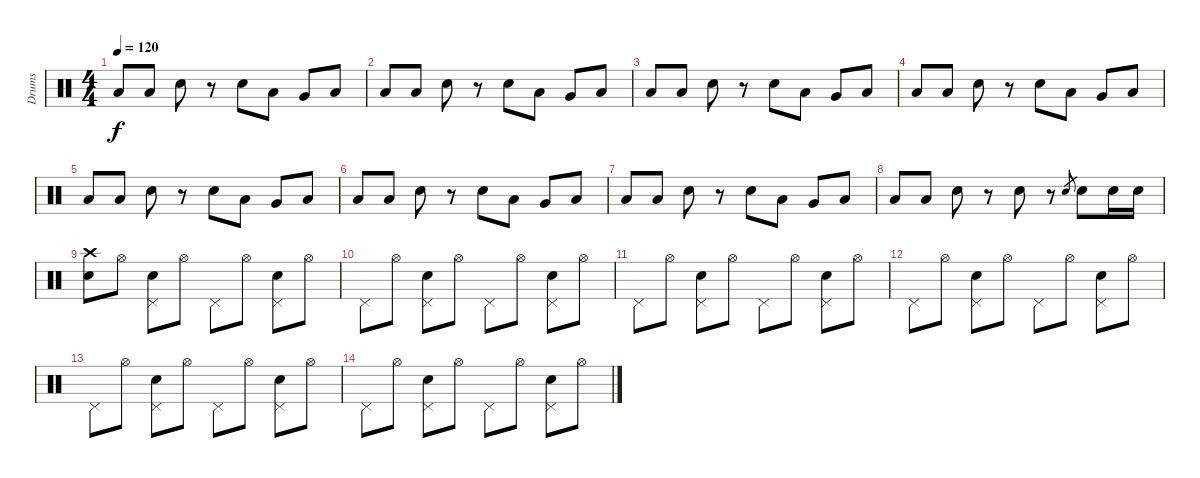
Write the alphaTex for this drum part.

\track ("Drums" "Drums") {instrument percussion}
\staff {score}
\articulation defaults
\ts (4 4)
\tempo 120
\clef neutral
\ks c "Low Tom (hit)".8{dy f} "Low Tom (hit)".8 "Electric Snare (hit)".8
r.8 "Electric Snare (hit)".8 "Low Tom (hit)".8 "Very Low Tom (hit)".8 "Low Floor Tom (hit)".8 |
"Low Tom (hit)".8 "Low Tom (hit)".8 "Electric Snare (hit)".8 r.8 "Electric Snare (hit)".8 "Low Tom (hit)".8 "Very Low Tom (hit)".8 "Low Floor Tom (hit)".8 |
"Low Tom (hit)".8 "Low Tom (hit)".8 "Electric Snare (hit)".8 r.8 "Electric Snare (hit)".8 "Low Tom (hit)".8 "Very Low Tom (hit)".8 "Low Floor Tom (hit)".8 |
"Low Tom (hit)".8 "Low Tom (hit)".8 "Electric Snare (hit)".8 r.8 "Electric Snare (hit)".8 "Low Tom (hit)".8 "Very Low Tom (hit)".8 "Low Floor Tom (hit)".8 |
"Low Tom (hit)".8 "Low Tom (hit)".8 "Electric Snare (hit)".8 r.8 "Electric Snare (hit)".8 "Low Tom (hit)".8 "Very Low Tom (hit)".8 "Low Floor Tom (hit)".8 |
"Low Tom (hit)".8 "Low Tom (hit)".8 "Electric Snare (hit)".8 r.8 "Electric Snare (hit)".8 "Low Tom (hit)".8 "Very Low Tom (hit)".8 "Low Floor Tom (hit)".8 |
"Low Tom (hit)".8 "Low Tom (hit)".8 "Electric Snare (hit)".8 r.8 "Electric Snare (hit)".8 "Low Tom (hit)".8 "Very Low Tom (hit)".8 "Low Floor Tom (hit)".8 |
"Low Tom (hit)".8 "Low Tom (hit)".8 "Electric Snare (hit)".8 r.8 "Electric Snare (hit)".8 r.8 "Electric Snare (hit)".8{gr} "Electric Snare (hit)".8 "Electric Snare (hit)".16 "Electric Snare (hit)".16 |
("Crash high (hit)" "Electric Snare (hit)").8 "Hi-Hat (open)".8 ("Pedal Hi-Hat (hit)" "Electric Snare (hit)").8 "Hi-Hat (open)".8 "Pedal Hi-Hat (hit)".8 "Hi-Hat (open)".8 ("Pedal Hi-Hat (hit)" "Electric Snare (hit)").8 "Hi-Hat (open)".8 |
"Pedal Hi-Hat (hit)".8 "Hi-Hat (open)".8 ("Pedal Hi-Hat (hit)" "Electric Snare (hit)").8 "Hi-Hat (open)".8 "Pedal Hi-Hat (hit)".8 "Hi-Hat (open)".8 ("Pedal Hi-Hat (hit)" "Electric Snare (hit)").8 "Hi-Hat (open)".8 |
"Pedal Hi-Hat (hit)".8 "Hi-Hat (open)".8 ("Pedal Hi-Hat (hit)" "Electric Snare (hit)").8 "Hi-Hat (open)".8 "Pedal Hi-Hat (hit)".8 "Hi-Hat (open)".8 ("Pedal Hi-Hat (hit)" "Electric Snare (hit)").8 "Hi-Hat (open)".8 |
"Pedal Hi-Hat (hit)".8 "Hi-Hat (open)".8 ("Pedal Hi-Hat (hit)" "Electric Snare (hit)").8 "Hi-Hat (open)".8 "Pedal Hi-Hat (hit)".8 "Hi-Hat (open)".8 ("Pedal Hi-Hat (hit)" "Electric Snare (hit)").8 "Hi-Hat (open)".8 |
"Pedal Hi-Hat (hit)".8 "Hi-Hat (open)".8 ("Pedal Hi-Hat (hit)" "Electric Snare (hit)").8 "Hi-Hat (open)".8 "Pedal Hi-Hat (hit)".8 "Hi-Hat (open)".8 ("Pedal Hi-Hat (hit)" "Electric Snare (hit)").8 "Hi-Hat (open)".8 |
"Pedal Hi-Hat (hit)".8 "Hi-Hat (open)".8 ("Pedal Hi-Hat (hit)" "Electric Snare (hit)").8 "Hi-Hat (open)".8 "Pedal Hi-Hat (hit)".8 "Hi-Hat (open)".8 ("Pedal Hi-Hat (hit)" "Electric Snare (hit)").8 "Hi-Hat (open)".8
